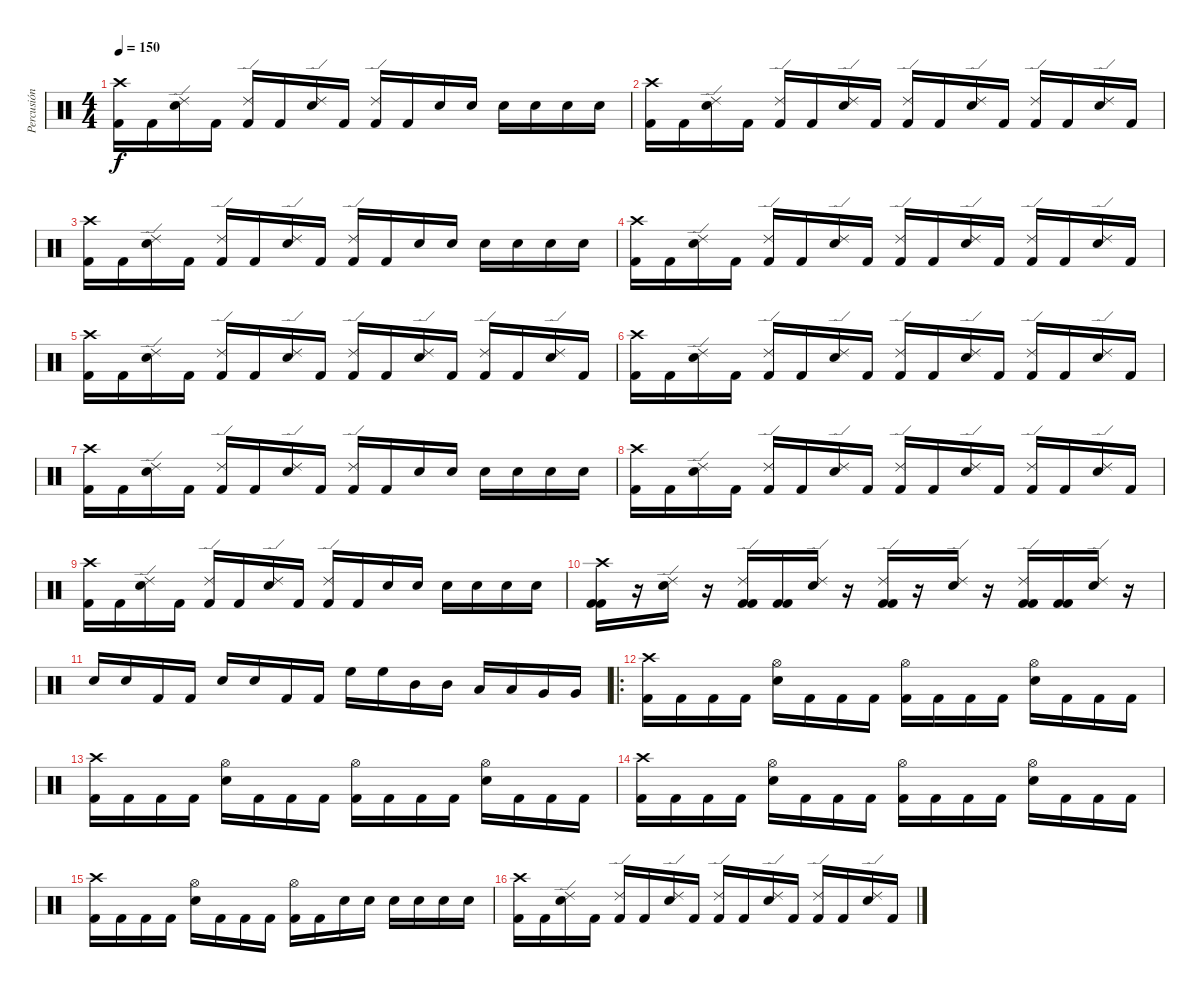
\track ("Percusión" "Percusión") {instrument percussion}
\staff {score}
\articulation defaults
\ts (4 4)
\tempo 150
\clef neutral
\ks c
("Crash high (hit)" "Kick (hit) 2").16{dy f} "Kick (hit) 2".16 ("Ride (edge) 2" "Electric Snare (hit)").16 "Kick (hit) 2".16 ("Ride (edge) 2" "Kick (hit) 2").16 "Kick (hit) 2".16 ("Ride (edge) 2" "Electric Snare (hit)").16 "Kick (hit) 2".16 ("Ride (edge) 2" "Kick (hit) 2").16 "Kick (hit) 2".16 "Electric Snare (hit)".16 "Electric Snare (hit)".16 "Electric Snare (hit)".16 "Electric Snare (hit)".16 "Electric Snare (hit)".16 "Electric Snare (hit)".16 |
("Crash high (hit)" "Kick (hit) 2").16 "Kick (hit) 2".16 ("Ride (edge) 2" "Electric Snare (hit)").16 "Kick (hit) 2".16 ("Ride (edge) 2" "Kick (hit) 2").16 "Kick (hit) 2".16 ("Ride (edge) 2" "Electric Snare (hit)").16 "Kick (hit) 2".16 ("Ride (edge) 2" "Kick (hit) 2").16 "Kick (hit) 2".16 ("Ride (edge) 2" "Electric Snare (hit)").16 "Kick (hit) 2".16 ("Ride (edge) 2" "Kick (hit) 2").16 "Kick (hit) 2".16 ("Ride (edge) 2" "Electric Snare (hit)").16 "Kick (hit) 2".16 |
("Crash high (hit)" "Kick (hit) 2").16 "Kick (hit) 2".16 ("Ride (edge) 2" "Electric Snare (hit)").16 "Kick (hit) 2".16 ("Ride (edge) 2" "Kick (hit) 2").16 "Kick (hit) 2".16 ("Ride (edge) 2" "Electric Snare (hit)").16 "Kick (hit) 2".16 ("Ride (edge) 2" "Kick (hit) 2").16 "Kick (hit) 2".16 "Electric Snare (hit)".16 "Electric Snare (hit)".16 "Electric Snare (hit)".16 "Electric Snare (hit)".16 "Electric Snare (hit)".16 "Electric Snare (hit)".16 |
("Crash high (hit)" "Kick (hit) 2").16 "Kick (hit) 2".16 ("Ride (edge) 2" "Electric Snare (hit)").16 "Kick (hit) 2".16 ("Ride (edge) 2" "Kick (hit) 2").16 "Kick (hit) 2".16 ("Ride (edge) 2" "Electric Snare (hit)").16 "Kick (hit) 2".16 ("Ride (edge) 2" "Kick (hit) 2").16 "Kick (hit) 2".16 ("Ride (edge) 2" "Electric Snare (hit)").16 "Kick (hit) 2".16 ("Ride (edge) 2" "Kick (hit) 2").16 "Kick (hit) 2".16 ("Ride (edge) 2" "Electric Snare (hit)").16 "Kick (hit) 2".16 |
("Crash high (hit)" "Kick (hit) 2").16 "Kick (hit) 2".16 ("Ride (edge) 2" "Electric Snare (hit)").16 "Kick (hit) 2".16 ("Ride (edge) 2" "Kick (hit) 2").16 "Kick (hit) 2".16 ("Ride (edge) 2" "Electric Snare (hit)").16 "Kick (hit) 2".16 ("Ride (edge) 2" "Kick (hit) 2").16 "Kick (hit) 2".16 ("Ride (edge) 2" "Electric Snare (hit)").16 "Kick (hit) 2".16 ("Ride (edge) 2" "Kick (hit) 2").16 "Kick (hit) 2".16 ("Ride (edge) 2" "Electric Snare (hit)").16 "Kick (hit) 2".16 |
("Crash high (hit)" "Kick (hit) 2").16 "Kick (hit) 2".16 ("Ride (edge) 2" "Electric Snare (hit)").16 "Kick (hit) 2".16 ("Ride (edge) 2" "Kick (hit) 2").16 "Kick (hit) 2".16 ("Ride (edge) 2" "Electric Snare (hit)").16 "Kick (hit) 2".16 ("Ride (edge) 2" "Kick (hit) 2").16 "Kick (hit) 2".16 ("Ride (edge) 2" "Electric Snare (hit)").16 "Kick (hit) 2".16 ("Ride (edge) 2" "Kick (hit) 2").16 "Kick (hit) 2".16 ("Ride (edge) 2" "Electric Snare (hit)").16 "Kick (hit) 2".16 |
("Crash high (hit)" "Kick (hit) 2").16 "Kick (hit) 2".16 ("Ride (edge) 2" "Electric Snare (hit)").16 "Kick (hit) 2".16 ("Ride (edge) 2" "Kick (hit) 2").16 "Kick (hit) 2".16 ("Ride (edge) 2" "Electric Snare (hit)").16 "Kick (hit) 2".16 ("Ride (edge) 2" "Kick (hit) 2").16 "Kick (hit) 2".16 "Electric Snare (hit)".16 "Electric Snare (hit)".16 "Electric Snare (hit)".16 "Electric Snare (hit)".16 "Electric Snare (hit)".16 "Electric Snare (hit)".16 |
("Crash high (hit)" "Kick (hit) 2").16 "Kick (hit) 2".16 ("Ride (edge) 2" "Electric Snare (hit)").16 "Kick (hit) 2".16 ("Ride (edge) 2" "Kick (hit) 2").16 "Kick (hit) 2".16 ("Ride (edge) 2" "Electric Snare (hit)").16 "Kick (hit) 2".16 ("Ride (edge) 2" "Kick (hit) 2").16 "Kick (hit) 2".16 ("Ride (edge) 2" "Electric Snare (hit)").16 "Kick (hit) 2".16 ("Ride (edge) 2" "Kick (hit) 2").16 "Kick (hit) 2".16 ("Ride (edge) 2" "Electric Snare (hit)").16 "Kick (hit) 2".16 |
("Crash high (hit)" "Kick (hit) 2").16 "Kick (hit) 2".16 ("Ride (edge) 2" "Electric Snare (hit)").16 "Kick (hit) 2".16 ("Ride (edge) 2" "Kick (hit) 2").16 "Kick (hit) 2".16 ("Ride (edge) 2" "Electric Snare (hit)").16 "Kick (hit) 2".16 ("Ride (edge) 2" "Kick (hit) 2").16 "Kick (hit) 2".16 "Electric Snare (hit)".16 "Electric Snare (hit)".16 "Electric Snare (hit)".16 "Electric Snare (hit)".16 "Electric Snare (hit)".16 "Electric Snare (hit)".16 |
("Crash high (hit)" "Kick (hit) 2" "Kick (hit) 2").16 r.16 ("Ride (edge) 2" "Electric Snare (hit)").16 r.16 ("Ride (edge) 2" "Kick (hit) 2" "Kick (hit) 2").16 ("Kick (hit) 2" "Kick (hit) 2").16 ("Ride (edge) 2" "Electric Snare (hit)").16 r.16 ("Ride (edge) 2" "Kick (hit) 2" "Kick (hit) 2").16 r.16 ("Ride (edge) 2" "Electric Snare (hit)").16 r.16 ("Ride (edge) 2" "Kick (hit) 2" "Kick (hit) 2").16 ("Kick (hit) 2" "Kick (hit) 2").16 ("Ride (edge) 2" "Electric Snare (hit)").16 r.16 |
"Electric Snare (hit)".16 "Electric Snare (hit)".16 "Kick (hit) 2".16 "Kick (hit) 2".16 "Electric Snare (hit)".16 "Electric Snare (hit)".16 "Kick (hit) 2".16 "Kick (hit) 2".16 "High Floor Tom (hit)".16 "High Floor Tom (hit)".16 "Mid Tom (hit)".16 "Mid Tom (hit)".16 "Low Tom (hit)".16 "Low Tom (hit)".16 "Very Low Tom (hit)".16 "Very Low Tom (hit)".16 |
\ro
("Crash high (hit)" "Kick (hit) 2").16 "Kick (hit) 2".16 "Kick (hit) 2".16 "Kick (hit) 2".16 ("Hi-Hat (open)" "Electric Snare (hit)").16 "Kick (hit) 2".16 "Kick (hit) 2".16 "Kick (hit) 2".16 ("Hi-Hat (open)" "Kick (hit) 2").16 "Kick (hit) 2".16 "Kick (hit) 2".16 "Kick (hit) 2".16 ("Hi-Hat (open)" "Electric Snare (hit)").16 "Kick (hit) 2".16 "Kick (hit) 2".16 "Kick (hit) 2".16 |
("Crash high (hit)" "Kick (hit) 2").16 "Kick (hit) 2".16 "Kick (hit) 2".16 "Kick (hit) 2".16 ("Hi-Hat (open)" "Electric Snare (hit)").16 "Kick (hit) 2".16 "Kick (hit) 2".16 "Kick (hit) 2".16 ("Hi-Hat (open)" "Kick (hit) 2").16 "Kick (hit) 2".16 "Kick (hit) 2".16 "Kick (hit) 2".16 ("Hi-Hat (open)" "Electric Snare (hit)").16 "Kick (hit) 2".16 "Kick (hit) 2".16 "Kick (hit) 2".16 |
("Crash high (hit)" "Kick (hit) 2").16 "Kick (hit) 2".16 "Kick (hit) 2".16 "Kick (hit) 2".16 ("Hi-Hat (open)" "Electric Snare (hit)").16 "Kick (hit) 2".16 "Kick (hit) 2".16 "Kick (hit) 2".16 ("Hi-Hat (open)" "Kick (hit) 2").16 "Kick (hit) 2".16 "Kick (hit) 2".16 "Kick (hit) 2".16 ("Hi-Hat (open)" "Electric Snare (hit)").16 "Kick (hit) 2".16 "Kick (hit) 2".16 "Kick (hit) 2".16 |
("Crash high (hit)" "Kick (hit) 2").16 "Kick (hit) 2".16 "Kick (hit) 2".16 "Kick (hit) 2".16 ("Hi-Hat (open)" "Electric Snare (hit)").16 "Kick (hit) 2".16 "Kick (hit) 2".16 "Kick (hit) 2".16 ("Hi-Hat (open)" "Kick (hit) 2").16 "Kick (hit) 2".16 "Electric Snare (hit)".16 "Electric Snare (hit)".16 "Electric Snare (hit)".16 "Electric Snare (hit)".16 "Electric Snare (hit)".16 "Electric Snare (hit)".16 |
("Crash high (hit)" "Kick (hit) 2").16 "Kick (hit) 2".16 ("Ride (edge) 2" "Electric Snare (hit)").16 "Kick (hit) 2".16 ("Ride (edge) 2" "Kick (hit) 2").16 "Kick (hit) 2".16 ("Ride (edge) 2" "Electric Snare (hit)").16 "Kick (hit) 2".16 ("Ride (edge) 2" "Kick (hit) 2").16 "Kick (hit) 2".16 ("Ride (edge) 2" "Electric Snare (hit)").16 "Kick (hit) 2".16 ("Ride (edge) 2" "Kick (hit) 2").16 "Kick (hit) 2".16 ("Ride (edge) 2" "Electric Snare (hit)").16 "Kick (hit) 2".16
